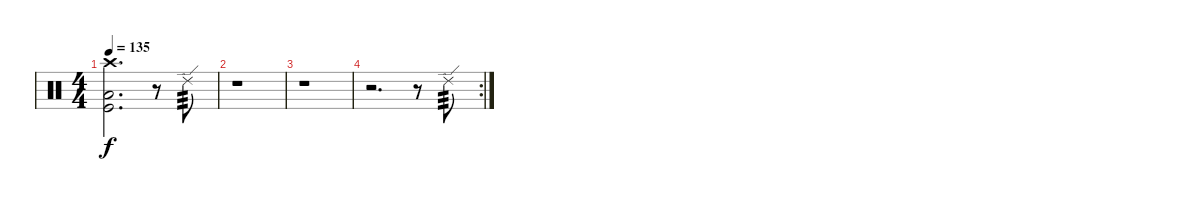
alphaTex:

\track "" {instrument percussion}
\staff {score}
\articulation defaults
\ts (4 4)
\tempo 135
\clef neutral
\ks c
("Crash high (hit)" "Low Tom (hit)" "Kick (hit)").2{d dy f} r.8 "Ride (edge) 2".8{tp 3} |
r.1 |
r.1 |
\rc 2
r.2{d} r.8 "Ride (edge) 2".8{tp 3}
